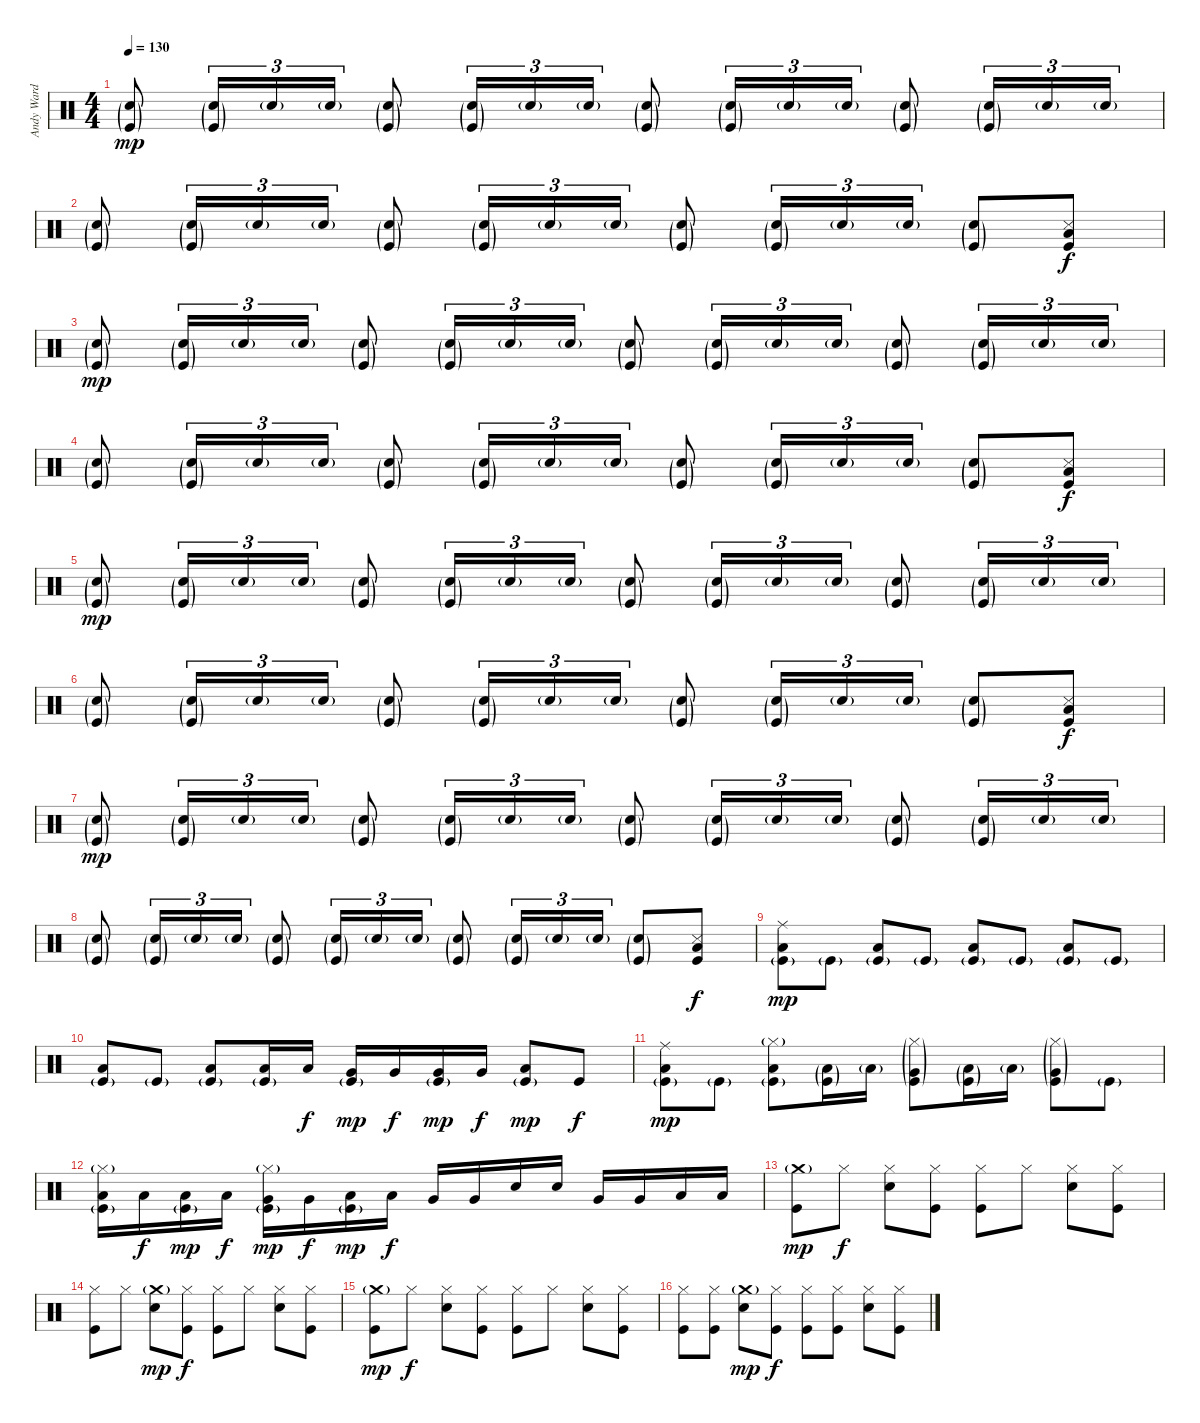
\track ("Andy Ward (Drums)" "Andy Ward ") {instrument percussion}
\staff {score}
\articulation defaults
\ts (4 4)
\tempo 130
\clef neutral
\ks c
("Snare (hit) 2"{g} "Kick (hit)"{g}).8{dy mp} ("Snare (hit) 2"{g} "Kick (hit)"{g}).16{tu (3 2)} "Snare (hit) 2"{g}.16{tu (3 2)} "Snare (hit) 2"{g}.16{tu (3 2)} ("Snare (hit) 2"{g} "Kick (hit)"{g}).8 ("Snare (hit) 2"{g} "Kick (hit)"{g}).16{tu (3 2)} "Snare (hit) 2"{g}.16{tu (3 2)} "Snare (hit) 2"{g}.16{tu (3 2)} ("Snare (hit) 2"{g} "Kick (hit)"{g}).8 ("Snare (hit) 2"{g} "Kick (hit)"{g}).16{tu (3 2)} "Snare (hit) 2"{g}.16{tu (3 2)} "Snare (hit) 2"{g}.16{tu (3 2)} ("Snare (hit) 2"{g} "Kick (hit)"{g}).8 ("Snare (hit) 2"{g} "Kick (hit)"{g}).16{tu (3 2)} "Snare (hit) 2"{g}.16{tu (3 2)} "Snare (hit) 2"{g}.16{tu (3 2)} |
("Snare (hit) 2"{g} "Kick (hit)"{g}).8 ("Snare (hit) 2"{g} "Kick (hit)"{g}).16{tu (3 2)} "Snare (hit) 2"{g}.16{tu (3 2)} "Snare (hit) 2"{g}.16{tu (3 2)} ("Snare (hit) 2"{g} "Kick (hit)"{g}).8 ("Snare (hit) 2"{g} "Kick (hit)"{g}).16{tu (3 2)} "Snare (hit) 2"{g}.16{tu (3 2)} "Snare (hit) 2"{g}.16{tu (3 2)} ("Snare (hit) 2"{g} "Kick (hit)"{g}).8 ("Snare (hit) 2"{g} "Kick (hit)"{g}).16{tu (3 2)} "Snare (hit) 2"{g}.16{tu (3 2)} "Snare (hit) 2"{g}.16{tu (3 2)} ("Snare (hit) 2"{g} "Kick (hit)"{g}).8 ("Snare (side stick) 3" "Low Floor Tom (hit)" "Kick (hit)").8{dy f} |
("Snare (hit) 2"{g} "Kick (hit)"{g}).8{dy mp} ("Snare (hit) 2"{g} "Kick (hit)"{g}).16{tu (3 2)} "Snare (hit) 2"{g}.16{tu (3 2)} "Snare (hit) 2"{g}.16{tu (3 2)} ("Snare (hit) 2"{g} "Kick (hit)"{g}).8 ("Snare (hit) 2"{g} "Kick (hit)"{g}).16{tu (3 2)} "Snare (hit) 2"{g}.16{tu (3 2)} "Snare (hit) 2"{g}.16{tu (3 2)} ("Snare (hit) 2"{g} "Kick (hit)"{g}).8 ("Snare (hit) 2"{g} "Kick (hit)"{g}).16{tu (3 2)} "Snare (hit) 2"{g}.16{tu (3 2)} "Snare (hit) 2"{g}.16{tu (3 2)} ("Snare (hit) 2"{g} "Kick (hit)"{g}).8 ("Snare (hit) 2"{g} "Kick (hit)"{g}).16{tu (3 2)} "Snare (hit) 2"{g}.16{tu (3 2)} "Snare (hit) 2"{g}.16{tu (3 2)} |
("Snare (hit) 2"{g} "Kick (hit)"{g}).8 ("Snare (hit) 2"{g} "Kick (hit)"{g}).16{tu (3 2)} "Snare (hit) 2"{g}.16{tu (3 2)} "Snare (hit) 2"{g}.16{tu (3 2)} ("Snare (hit) 2"{g} "Kick (hit)"{g}).8 ("Snare (hit) 2"{g} "Kick (hit)"{g}).16{tu (3 2)} "Snare (hit) 2"{g}.16{tu (3 2)} "Snare (hit) 2"{g}.16{tu (3 2)} ("Snare (hit) 2"{g} "Kick (hit)"{g}).8 ("Snare (hit) 2"{g} "Kick (hit)"{g}).16{tu (3 2)} "Snare (hit) 2"{g}.16{tu (3 2)} "Snare (hit) 2"{g}.16{tu (3 2)} ("Snare (hit) 2"{g} "Kick (hit)"{g}).8 ("Snare (side stick) 3" "Low Floor Tom (hit)" "Kick (hit)").8{dy f} |
("Snare (hit) 2"{g} "Kick (hit)"{g}).8{dy mp} ("Snare (hit) 2"{g} "Kick (hit)"{g}).16{tu (3 2)} "Snare (hit) 2"{g}.16{tu (3 2)} "Snare (hit) 2"{g}.16{tu (3 2)} ("Snare (hit) 2"{g} "Kick (hit)"{g}).8 ("Snare (hit) 2"{g} "Kick (hit)"{g}).16{tu (3 2)} "Snare (hit) 2"{g}.16{tu (3 2)} "Snare (hit) 2"{g}.16{tu (3 2)} ("Snare (hit) 2"{g} "Kick (hit)"{g}).8 ("Snare (hit) 2"{g} "Kick (hit)"{g}).16{tu (3 2)} "Snare (hit) 2"{g}.16{tu (3 2)} "Snare (hit) 2"{g}.16{tu (3 2)} ("Snare (hit) 2"{g} "Kick (hit)"{g}).8 ("Snare (hit) 2"{g} "Kick (hit)"{g}).16{tu (3 2)} "Snare (hit) 2"{g}.16{tu (3 2)} "Snare (hit) 2"{g}.16{tu (3 2)} |
("Snare (hit) 2"{g} "Kick (hit)"{g}).8 ("Snare (hit) 2"{g} "Kick (hit)"{g}).16{tu (3 2)} "Snare (hit) 2"{g}.16{tu (3 2)} "Snare (hit) 2"{g}.16{tu (3 2)} ("Snare (hit) 2"{g} "Kick (hit)"{g}).8 ("Snare (hit) 2"{g} "Kick (hit)"{g}).16{tu (3 2)} "Snare (hit) 2"{g}.16{tu (3 2)} "Snare (hit) 2"{g}.16{tu (3 2)} ("Snare (hit) 2"{g} "Kick (hit)"{g}).8 ("Snare (hit) 2"{g} "Kick (hit)"{g}).16{tu (3 2)} "Snare (hit) 2"{g}.16{tu (3 2)} "Snare (hit) 2"{g}.16{tu (3 2)} ("Snare (hit) 2"{g} "Kick (hit)"{g}).8 ("Snare (side stick) 3" "Low Floor Tom (hit)" "Kick (hit)").8{dy f} |
("Snare (hit) 2"{g} "Kick (hit)"{g}).8{dy mp} ("Snare (hit) 2"{g} "Kick (hit)"{g}).16{tu (3 2)} "Snare (hit) 2"{g}.16{tu (3 2)} "Snare (hit) 2"{g}.16{tu (3 2)} ("Snare (hit) 2"{g} "Kick (hit)"{g}).8 ("Snare (hit) 2"{g} "Kick (hit)"{g}).16{tu (3 2)} "Snare (hit) 2"{g}.16{tu (3 2)} "Snare (hit) 2"{g}.16{tu (3 2)} ("Snare (hit) 2"{g} "Kick (hit)"{g}).8 ("Snare (hit) 2"{g} "Kick (hit)"{g}).16{tu (3 2)} "Snare (hit) 2"{g}.16{tu (3 2)} "Snare (hit) 2"{g}.16{tu (3 2)} ("Snare (hit) 2"{g} "Kick (hit)"{g}).8 ("Snare (hit) 2"{g} "Kick (hit)"{g}).16{tu (3 2)} "Snare (hit) 2"{g}.16{tu (3 2)} "Snare (hit) 2"{g}.16{tu (3 2)} |
("Snare (hit) 2"{g} "Kick (hit)"{g}).8 ("Snare (hit) 2"{g} "Kick (hit)"{g}).16{tu (3 2)} "Snare (hit) 2"{g}.16{tu (3 2)} "Snare (hit) 2"{g}.16{tu (3 2)} ("Snare (hit) 2"{g} "Kick (hit)"{g}).8 ("Snare (hit) 2"{g} "Kick (hit)"{g}).16{tu (3 2)} "Snare (hit) 2"{g}.16{tu (3 2)} "Snare (hit) 2"{g}.16{tu (3 2)} ("Snare (hit) 2"{g} "Kick (hit)"{g}).8 ("Snare (hit) 2"{g} "Kick (hit)"{g}).16{tu (3 2)} "Snare (hit) 2"{g}.16{tu (3 2)} "Snare (hit) 2"{g}.16{tu (3 2)} ("Snare (hit) 2"{g} "Kick (hit)"{g}).8 ("Snare (side stick) 3" "Low Floor Tom (hit)" "Kick (hit)").8{dy f} |
("Ride (middle)" "Low Floor Tom (hit)" "Kick (hit)"{g}).8{dy mp} "Kick (hit)"{g}.8 ("Low Floor Tom (hit)" "Kick (hit)"{g}).8 "Kick (hit)"{g}.8 ("Low Floor Tom (hit)" "Kick (hit)"{g}).8 "Kick (hit)"{g}.8 ("Low Floor Tom (hit)" "Kick (hit)"{g}).8 "Kick (hit)"{g}.8 |
("Low Floor Tom (hit)" "Kick (hit)"{g}).8 "Kick (hit)"{g}.8 ("Low Floor Tom (hit)" "Kick (hit)"{g}).8 ("Low Floor Tom (hit)" "Kick (hit)"{g}).16 "Low Floor Tom (hit)".16{dy f} ("Very Low Tom (hit)" "Kick (hit)"{g}).16{dy mp} "Very Low Tom (hit)".16{dy f} ("Very Low Tom (hit)" "Kick (hit)"{g}).16{dy mp} "Very Low Tom (hit)".16{dy f} ("Low Floor Tom (hit)" "Kick (hit)"{g}).8{dy mp} "Kick (hit)".8{dy f} |
("Ride (middle)" "Low Floor Tom (hit)" "Kick (hit)"{g}).8{dy mp} "Kick (hit)"{g}.8 ("Hi-Hat (closed)"{g} "Low Floor Tom (hit)" "Kick (hit)"{g}).8 ("Low Floor Tom (hit)"{g} "Kick (hit)"{g}).16 "Low Floor Tom (hit)"{g}.16 ("Hi-Hat (closed)"{g} "Very Low Tom (hit)"{g} "Kick (hit)"{g}).8 ("Low Floor Tom (hit)"{g} "Kick (hit)"{g}).16 "Low Floor Tom (hit)"{g}.16 ("Hi-Hat (closed)"{g} "Very Low Tom (hit)"{g} "Kick (hit)"{g}).8 "Kick (hit)"{g}.8 |
("Hi-Hat (closed)"{g} "Low Floor Tom (hit)" "Kick (hit)"{g}).16 "Low Floor Tom (hit)".16{dy f} ("Low Floor Tom (hit)" "Kick (hit)"{g}).16{dy mp} "Low Floor Tom (hit)".16{dy f} ("Hi-Hat (closed)"{g} "Very Low Tom (hit)" "Kick (hit)"{g}).16{dy mp} "Very Low Tom (hit)".16{dy f} ("Low Floor Tom (hit)" "Kick (hit)"{g}).16{dy mp} "Low Floor Tom (hit)".16{dy f} "Very Low Tom (hit)".16 "Very Low Tom (hit)".16 "Electric Snare (hit)".16 "Electric Snare (hit)".16 "Very Low Tom (hit)".16 "Very Low Tom (hit)".16 "Low Floor Tom (hit)".16 "Low Floor Tom (hit)".16 |
("Crash medium (hit)"{g} "Kick (hit)").8{dy mp} "Hi-Hat (closed)".8{dy f} ("Hi-Hat (closed)" "Electric Snare (hit)").8 ("Hi-Hat (closed)" "Kick (hit)").8 ("Hi-Hat (closed)" "Kick (hit)").8 "Hi-Hat (closed)".8 ("Hi-Hat (closed)" "Electric Snare (hit)").8 ("Hi-Hat (closed)" "Kick (hit)").8 |
("Hi-Hat (closed)" "Kick (hit)").8 "Hi-Hat (closed)".8 ("Crash medium (hit)"{g} "Electric Snare (hit)").8{dy mp} ("Hi-Hat (closed)" "Kick (hit)").8{dy f} ("Hi-Hat (closed)" "Kick (hit)").8 "Hi-Hat (closed)".8 ("Hi-Hat (closed)" "Electric Snare (hit)").8 ("Hi-Hat (closed)" "Kick (hit)").8 |
("Crash medium (hit)"{g} "Kick (hit)").8{dy mp} "Hi-Hat (closed)".8{dy f} ("Hi-Hat (closed)" "Electric Snare (hit)").8 ("Hi-Hat (closed)" "Kick (hit)").8 ("Hi-Hat (closed)" "Kick (hit)").8 "Hi-Hat (closed)".8 ("Hi-Hat (closed)" "Electric Snare (hit)").8 ("Hi-Hat (closed)" "Kick (hit)").8 |
("Hi-Hat (closed)" "Kick (hit)").8 ("Hi-Hat (closed)" "Kick (hit)").8 ("Crash medium (hit)"{g} "Electric Snare (hit)").8{dy mp} ("Hi-Hat (closed)" "Kick (hit)").8{dy f} ("Hi-Hat (closed)" "Kick (hit)").8 ("Hi-Hat (closed)" "Kick (hit)").8 ("Hi-Hat (closed)" "Electric Snare (hit)").8 ("Hi-Hat (closed)" "Kick (hit)").8
